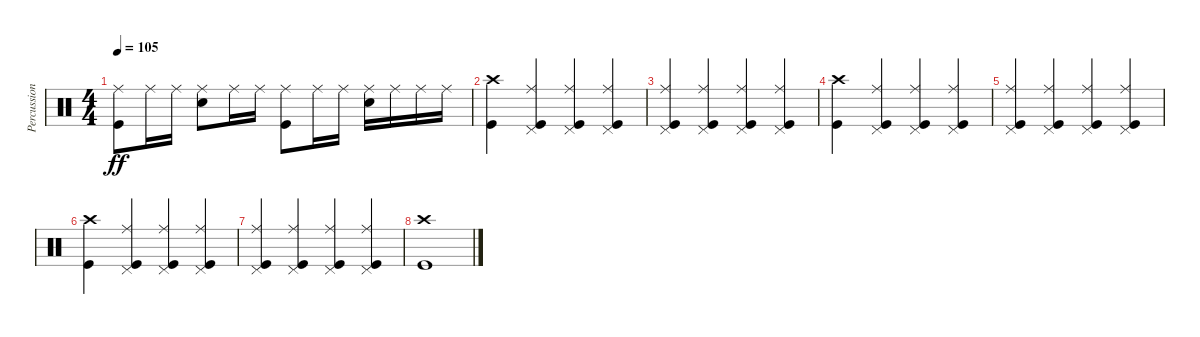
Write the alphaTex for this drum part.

\track ("Percussion" "Percussion") {instrument percussion}
\staff {score}
\articulation defaults
\ts (4 4)
\tempo 105
\clef neutral
\ks c
("Kick (hit)" "Ride (middle)").8{dy ff} "Ride (middle)".16 "Ride (middle)".16 ("Snare (hit) 2" "Ride (middle)").8 "Ride (middle)".16 "Ride (middle)".16 ("Kick (hit)" "Ride (middle)").8 "Ride (middle)".16 "Ride (middle)".16 ("Snare (hit) 2" "Ride (middle)").16 "Ride (middle)".16 "Ride (middle)".16 "Ride (middle)".16 |
("Kick (hit)" "Crash high (hit)").4 ("Kick (hit)" "Pedal Hi-Hat (hit)" "Ride (middle)").4 ("Kick (hit)" "Pedal Hi-Hat (hit)" "Ride (middle)").4 ("Kick (hit)" "Pedal Hi-Hat (hit)" "Ride (middle)").4 |
("Kick (hit)" "Pedal Hi-Hat (hit)" "Ride (middle)").4 ("Kick (hit)" "Pedal Hi-Hat (hit)" "Ride (middle)").4 ("Kick (hit)" "Pedal Hi-Hat (hit)" "Ride (middle)").4 ("Kick (hit)" "Pedal Hi-Hat (hit)" "Ride (middle)").4 |
("Kick (hit)" "Crash high (hit)").4 ("Kick (hit)" "Pedal Hi-Hat (hit)" "Ride (middle)").4 ("Kick (hit)" "Pedal Hi-Hat (hit)" "Ride (middle)").4 ("Kick (hit)" "Pedal Hi-Hat (hit)" "Ride (middle)").4 |
("Kick (hit)" "Pedal Hi-Hat (hit)" "Ride (middle)").4 ("Kick (hit)" "Pedal Hi-Hat (hit)" "Ride (middle)").4 ("Kick (hit)" "Pedal Hi-Hat (hit)" "Ride (middle)").4 ("Kick (hit)" "Pedal Hi-Hat (hit)" "Ride (middle)").4 |
("Kick (hit)" "Crash high (hit)").4 ("Kick (hit)" "Pedal Hi-Hat (hit)" "Ride (middle)").4 ("Kick (hit)" "Pedal Hi-Hat (hit)" "Ride (middle)").4 ("Kick (hit)" "Pedal Hi-Hat (hit)" "Ride (middle)").4 |
("Kick (hit)" "Pedal Hi-Hat (hit)" "Ride (middle)").4 ("Kick (hit)" "Pedal Hi-Hat (hit)" "Ride (middle)").4 ("Kick (hit)" "Pedal Hi-Hat (hit)" "Ride (middle)").4 ("Kick (hit)" "Pedal Hi-Hat (hit)" "Ride (middle)").4 |
("Kick (hit)" "Crash high (hit)").1
